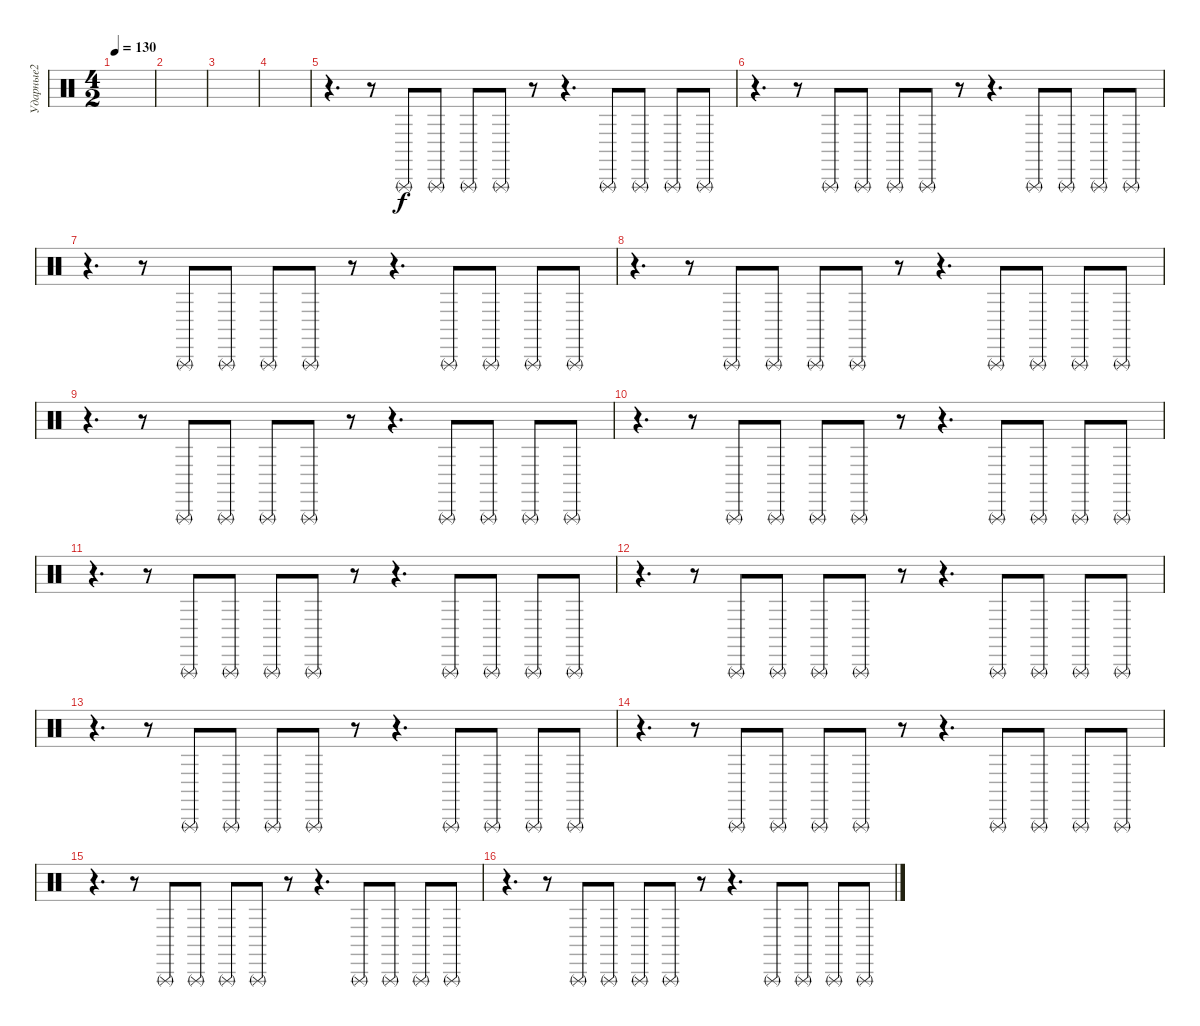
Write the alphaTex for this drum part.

\track ("Ударные2" "Ударные2") {instrument percussion}
\staff {score}
\articulation defaults
\ts (4 2)
\tempo 130
\clef neutral
\ks c
|
|
|
|
r.4{d} r.8 "Triangle (rnute)".8 "Triangle (rnute)".8 "Triangle (rnute)".8 "Triangle (rnute)".8 r.8 r.4{d} "Triangle (rnute)".8 "Triangle (rnute)".8 "Triangle (rnute)".8 "Triangle (rnute)".8 |
r.4{d} r.8 "Triangle (rnute)".8 "Triangle (rnute)".8 "Triangle (rnute)".8 "Triangle (rnute)".8 r.8 r.4{d} "Triangle (rnute)".8 "Triangle (rnute)".8 "Triangle (rnute)".8 "Triangle (rnute)".8 |
r.4{d} r.8 "Triangle (rnute)".8 "Triangle (rnute)".8 "Triangle (rnute)".8 "Triangle (rnute)".8 r.8 r.4{d} "Triangle (rnute)".8 "Triangle (rnute)".8 "Triangle (rnute)".8 "Triangle (rnute)".8 |
r.4{d} r.8 "Triangle (rnute)".8 "Triangle (rnute)".8 "Triangle (rnute)".8 "Triangle (rnute)".8 r.8 r.4{d} "Triangle (rnute)".8 "Triangle (rnute)".8 "Triangle (rnute)".8 "Triangle (rnute)".8 |
r.4{d} r.8 "Triangle (rnute)".8 "Triangle (rnute)".8 "Triangle (rnute)".8 "Triangle (rnute)".8 r.8 r.4{d} "Triangle (rnute)".8 "Triangle (rnute)".8 "Triangle (rnute)".8 "Triangle (rnute)".8 |
r.4{d} r.8 "Triangle (rnute)".8 "Triangle (rnute)".8 "Triangle (rnute)".8 "Triangle (rnute)".8 r.8 r.4{d} "Triangle (rnute)".8 "Triangle (rnute)".8 "Triangle (rnute)".8 "Triangle (rnute)".8 |
r.4{d} r.8 "Triangle (rnute)".8 "Triangle (rnute)".8 "Triangle (rnute)".8 "Triangle (rnute)".8 r.8 r.4{d} "Triangle (rnute)".8 "Triangle (rnute)".8 "Triangle (rnute)".8 "Triangle (rnute)".8 |
r.4{d} r.8 "Triangle (rnute)".8 "Triangle (rnute)".8 "Triangle (rnute)".8 "Triangle (rnute)".8 r.8 r.4{d} "Triangle (rnute)".8 "Triangle (rnute)".8 "Triangle (rnute)".8 "Triangle (rnute)".8 |
r.4{d} r.8 "Triangle (rnute)".8 "Triangle (rnute)".8 "Triangle (rnute)".8 "Triangle (rnute)".8 r.8 r.4{d} "Triangle (rnute)".8 "Triangle (rnute)".8 "Triangle (rnute)".8 "Triangle (rnute)".8 |
r.4{d} r.8 "Triangle (rnute)".8 "Triangle (rnute)".8 "Triangle (rnute)".8 "Triangle (rnute)".8 r.8 r.4{d} "Triangle (rnute)".8 "Triangle (rnute)".8 "Triangle (rnute)".8 "Triangle (rnute)".8 |
r.4{d} r.8 "Triangle (rnute)".8 "Triangle (rnute)".8 "Triangle (rnute)".8 "Triangle (rnute)".8 r.8 r.4{d} "Triangle (rnute)".8 "Triangle (rnute)".8 "Triangle (rnute)".8 "Triangle (rnute)".8 |
r.4{d} r.8 "Triangle (rnute)".8 "Triangle (rnute)".8 "Triangle (rnute)".8 "Triangle (rnute)".8 r.8 r.4{d} "Triangle (rnute)".8 "Triangle (rnute)".8 "Triangle (rnute)".8 "Triangle (rnute)".8
